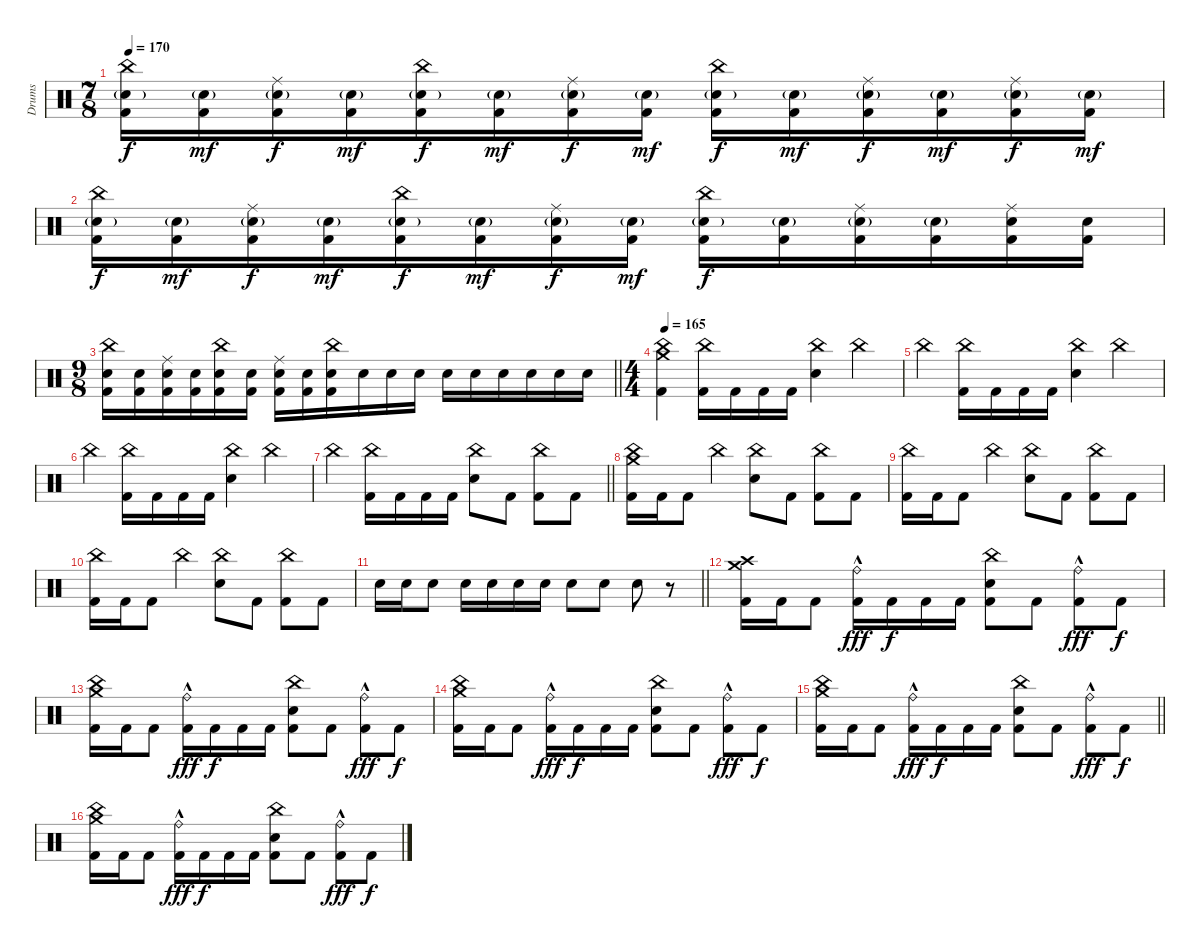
\track ("Drums" "Drums") {instrument percussion}
\staff {score}
\articulation defaults
\ts (7 8)
\tempo 170
\clef neutral
\ks c
("China (hit)" "Electric Snare (hit)"{g} "Kick (hit) 2").16{dy f} ("Electric Snare (hit)"{g} "Kick (hit) 2").16{dy mf} ("Ride (middle)" "Electric Snare (hit)"{g} "Kick (hit) 2").16{dy f} ("Electric Snare (hit)"{g} "Kick (hit) 2").16{dy mf} ("China (hit)" "Electric Snare (hit)"{g} "Kick (hit) 2").16{dy f} ("Electric Snare (hit)"{g} "Kick (hit) 2").16{dy mf} ("Ride (middle)" "Electric Snare (hit)"{g} "Kick (hit) 2").16{dy f} ("Electric Snare (hit)"{g} "Kick (hit) 2").16{dy mf} ("China (hit)" "Electric Snare (hit)"{g} "Kick (hit) 2").16{dy f} ("Electric Snare (hit)"{g} "Kick (hit) 2").16{dy mf} ("Ride (middle)" "Electric Snare (hit)"{g} "Kick (hit) 2").16{dy f} ("Electric Snare (hit)"{g} "Kick (hit) 2").16{dy mf} ("Ride (middle)" "Electric Snare (hit)"{g} "Kick (hit) 2").16{dy f} ("Electric Snare (hit)"{g} "Kick (hit) 2").16{dy mf} |
("China (hit)" "Electric Snare (hit)"{g} "Kick (hit) 2").16{dy f} ("Electric Snare (hit)"{g} "Kick (hit) 2").16{dy mf} ("Ride (middle)" "Electric Snare (hit)"{g} "Kick (hit) 2").16{dy f} ("Electric Snare (hit)"{g} "Kick (hit) 2").16{dy mf} ("China (hit)" "Electric Snare (hit)"{g} "Kick (hit) 2").16{dy f} ("Electric Snare (hit)"{g} "Kick (hit) 2").16{dy mf} ("Ride (middle)" "Electric Snare (hit)"{g} "Kick (hit) 2").16{dy f} ("Electric Snare (hit)"{g} "Kick (hit) 2").16{dy mf} ("China (hit)" "Electric Snare (hit)"{g} "Kick (hit) 2").16{dy f} ("Electric Snare (hit)"{g} "Kick (hit) 2").16 ("Ride (middle)" "Electric Snare (hit)"{g} "Kick (hit) 2").16 ("Electric Snare (hit)"{g} "Kick (hit) 2").16 ("Ride (middle)" "Electric Snare (hit)" "Kick (hit) 2").16 ("Electric Snare (hit)" "Kick (hit) 2").16 |
\ts (9 8)
\barLineRight lightlight
("China (hit)" "Electric Snare (hit)" "Kick (hit) 2").16 ("Electric Snare (hit)" "Kick (hit) 2").16 ("Ride (middle)" "Electric Snare (hit)" "Kick (hit) 2").16 ("Electric Snare (hit)" "Kick (hit) 2").16 ("China (hit)" "Electric Snare (hit)" "Kick (hit) 2").16 ("Electric Snare (hit)" "Kick (hit) 2").16 ("Ride (middle)" "Electric Snare (hit)" "Kick (hit) 2").16 ("Electric Snare (hit)" "Kick (hit) 2").16 ("China (hit)" "Electric Snare (hit)" "Kick (hit) 2").16 "Electric Snare (hit)".16 "Electric Snare (hit)".16 "Electric Snare (hit)".16 "Electric Snare (hit)".16 "Electric Snare (hit)".16 "Electric Snare (hit)".16 "Electric Snare (hit)".16 "Electric Snare (hit)".16 "Electric Snare (hit)".16 |
\ts (4 4)
\section ("" "")
\tempo 165
("China (hit)" "Crash medium (hit)" "Kick (hit) 2").4 ("China (hit)" "Kick (hit) 2").16 "Kick (hit) 2".16 "Kick (hit) 2".16 "Kick (hit) 2".16 ("China (hit)" "Electric Snare (hit)").4 "China (hit)".4 |
"China (hit)".4 ("China (hit)" "Kick (hit) 2").16 "Kick (hit) 2".16 "Kick (hit) 2".16 "Kick (hit) 2".16 ("China (hit)" "Electric Snare (hit)").4 "China (hit)".4 |
"China (hit)".4 ("China (hit)" "Kick (hit) 2").16 "Kick (hit) 2".16 "Kick (hit) 2".16 "Kick (hit) 2".16 ("China (hit)" "Electric Snare (hit)").4 "China (hit)".4 |
\barLineRight lightlight "China (hit)".4
("China (hit)" "Kick (hit) 2").16 "Kick (hit) 2".16 "Kick (hit) 2".16 "Kick (hit) 2".16 ("China (hit)" "Electric Snare (hit)").8 "Kick (hit) 2".8 ("China (hit)" "Kick (hit) 2").8 "Kick (hit) 2".8 |
("China (hit)" "Crash medium (hit)" "Kick (hit) 2").16 "Kick (hit) 2".16 "Kick (hit) 2".8 "China (hit)".4 ("China (hit)" "Electric Snare (hit)").8 "Kick (hit) 2".8 ("China (hit)" "Kick (hit) 2").8 "Kick (hit) 2".8 |
("China (hit)" "Kick (hit) 2").16 "Kick (hit) 2".16 "Kick (hit) 2".8 "China (hit)".4 ("China (hit)" "Electric Snare (hit)").8 "Kick (hit) 2".8 ("China (hit)" "Kick (hit) 2").8 "Kick (hit) 2".8 |
("China (hit)" "Kick (hit) 2").16 "Kick (hit) 2".16 "Kick (hit) 2".8 "China (hit)".4 ("China (hit)" "Electric Snare (hit)").8 "Kick (hit) 2".8 ("China (hit)" "Kick (hit) 2").8 "Kick (hit) 2".8 |
\barLineRight lightlight "Electric Snare (hit)".16 "Electric Snare (hit)".16 "Electric Snare (hit)".8 "Electric Snare (hit)".16 "Electric Snare (hit)".16 "Electric Snare (hit)".16 "Electric Snare (hit)".16 "Electric Snare (hit)".8 "Electric Snare (hit)".8 "Electric Snare (hit)".8
r.8 |
\section ("" "")
("Crash high (hit)" "Crash medium (hit)" "Kick (hit) 2").16 "Kick (hit) 2".16 "Kick (hit) 2".8 ("Ride (bell)"{hac} "Kick (hit) 2").16{dy fff} "Kick (hit) 2".16{dy f} "Kick (hit) 2".16 "Kick (hit) 2".16 ("China (hit)" "Electric Snare (hit)" "Kick (hit) 2").8 "Kick (hit) 2".8 ("Ride (bell)"{hac} "Kick (hit) 2").8{dy fff} "Kick (hit) 2".8{dy f} |
("China (hit)" "Crash medium (hit)" "Kick (hit) 2").16 "Kick (hit) 2".16 "Kick (hit) 2".8 ("Ride (bell)"{hac} "Kick (hit) 2").16{dy fff} "Kick (hit) 2".16{dy f} "Kick (hit) 2".16 "Kick (hit) 2".16 ("China (hit)" "Electric Snare (hit)" "Kick (hit) 2").8 "Kick (hit) 2".8 ("Ride (bell)"{hac} "Kick (hit) 2").8{dy fff} "Kick (hit) 2".8{dy f} |
("China (hit)" "Crash medium (hit)" "Kick (hit) 2").16 "Kick (hit) 2".16 "Kick (hit) 2".8 ("Ride (bell)"{hac} "Kick (hit) 2").16{dy fff} "Kick (hit) 2".16{dy f} "Kick (hit) 2".16 "Kick (hit) 2".16 ("China (hit)" "Electric Snare (hit)" "Kick (hit) 2").8 "Kick (hit) 2".8 ("Ride (bell)"{hac} "Kick (hit) 2").8{dy fff} "Kick (hit) 2".8{dy f} |
\barLineRight lightlight
("China (hit)" "Crash medium (hit)" "Kick (hit) 2").16 "Kick (hit) 2".16 "Kick (hit) 2".8 ("Ride (bell)"{hac} "Kick (hit) 2").16{dy fff} "Kick (hit) 2".16{dy f} "Kick (hit) 2".16 "Kick (hit) 2".16 ("China (hit)" "Electric Snare (hit)" "Kick (hit) 2").8 "Kick (hit) 2".8 ("Ride (bell)"{hac} "Kick (hit) 2").8{dy fff} "Kick (hit) 2".8{dy f} |
("China (hit)" "Crash medium (hit)" "Kick (hit) 2").16 "Kick (hit) 2".16 "Kick (hit) 2".8 ("Ride (bell)"{hac} "Kick (hit) 2").16{dy fff} "Kick (hit) 2".16{dy f} "Kick (hit) 2".16 "Kick (hit) 2".16 ("China (hit)" "Electric Snare (hit)" "Kick (hit) 2").8 "Kick (hit) 2".8 ("Ride (bell)"{hac} "Kick (hit) 2").8{dy fff} "Kick (hit) 2".8{dy f}
